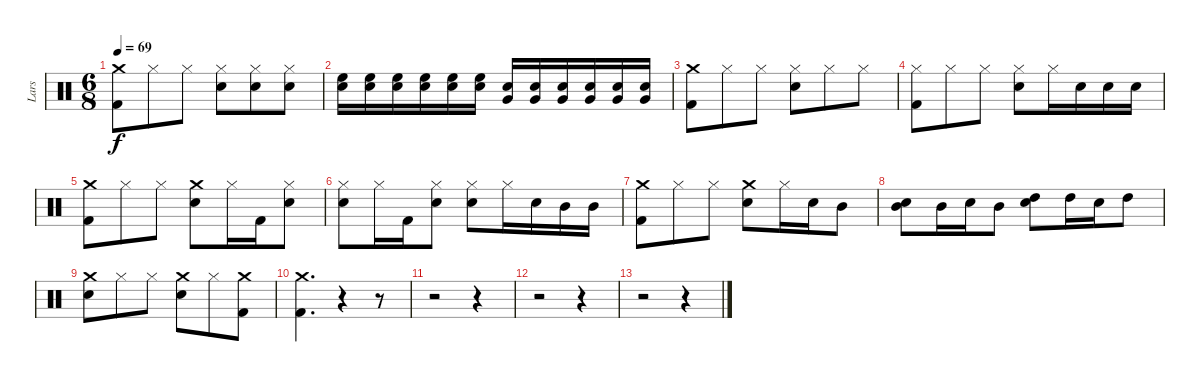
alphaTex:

\track ("Lars" "Lars") {instrument percussion}
\staff {score}
\articulation defaults
\ts (6 8)
\tempo 69
\clef neutral
\ks c
("Kick (hit) 2" "Crash medium (hit)").8{dy f} "Hi-Hat (closed)".8 "Hi-Hat (closed)".8 ("Snare (hit) 2" "Hi-Hat (closed)").8 ("Hi-Hat (closed)" "Snare (hit) 2").8 ("Snare (hit) 2" "Hi-Hat (closed)").8 |
("High Floor Tom (hit)" "Snare (hit) 2").16 ("High Floor Tom (hit)" "Snare (hit) 2").16 ("High Floor Tom (hit)" "Snare (hit) 2").16 ("High Floor Tom (hit)" "Snare (hit) 2").16 ("High Floor Tom (hit)" "Snare (hit) 2").16 ("High Floor Tom (hit)" "Snare (hit) 2").16 ("Very Low Tom (hit)" "Snare (hit) 2").16 ("Very Low Tom (hit)" "Snare (hit) 2").16 ("Very Low Tom (hit)" "Snare (hit) 2").16 ("Very Low Tom (hit)" "Snare (hit) 2").16 ("Very Low Tom (hit)" "Snare (hit) 2").16 ("Very Low Tom (hit)" "Snare (hit) 2").16 |
("Kick (hit) 2" "Crash medium (hit)").8 "Hi-Hat (closed)".8 "Hi-Hat (closed)".8 ("Snare (hit) 2" "Hi-Hat (closed)").8 "Hi-Hat (closed)".8 "Hi-Hat (closed)".8 |
("Kick (hit) 2" "Hi-Hat (closed)").8 "Hi-Hat (closed)".8 "Hi-Hat (closed)".8 ("Snare (hit) 2" "Hi-Hat (closed)").8 "Hi-Hat (closed)".16 "Snare (hit) 2".16 "Snare (hit) 2".16 "Snare (hit) 2".16 |
("Kick (hit) 2" "Crash medium (hit)").8 "Hi-Hat (closed)".8 "Hi-Hat (closed)".8 ("Snare (hit) 2" "Crash medium (hit)").8 "Hi-Hat (closed)".16 "Kick (hit) 2".16 ("Snare (hit) 2" "Hi-Hat (closed)").8 |
("Snare (hit) 2" "Hi-Hat (closed)").8 "Hi-Hat (closed)".16 "Kick (hit) 2".16 ("Snare (hit) 2" "Hi-Hat (closed)").8 ("Snare (hit) 2" "Hi-Hat (closed)").8 "Hi-Hat (closed)".16 "Snare (hit) 2".16 "Mid Tom (hit)".16 "Mid Tom (hit)".16 |
("Kick (hit) 2" "Crash medium (hit)").8 "Hi-Hat (closed)".8 "Hi-Hat (closed)".8 ("Snare (hit) 2" "Crash medium (hit)").8 "Hi-Hat (closed)".16 "Snare (hit) 2".16 "Mid Tom (hit)".8 |
("Mid Tom (hit)" "Snare (hit) 2").8 "Mid Tom (hit)".16 "Snare (hit) 2".16 "Mid Tom (hit)".8 ("High Tom (hit)" "Snare (hit) 2").8 "High Tom (hit)".16 "Snare (hit) 2".16 "High Tom (hit)".8 |
("Snare (hit) 2" "Crash medium (hit)").8 "Hi-Hat (closed)".8 "Hi-Hat (closed)".8 ("Snare (hit) 2" "Crash medium (hit)").8 "Hi-Hat (closed)".8 ("Kick (hit) 2" "Crash medium (hit)").8 |
("Kick (hit) 2" "Crash medium (hit)").4{d} r.4 r.8 |
r.2 r.4 |
r.2 r.4 |
r.2 r.4
